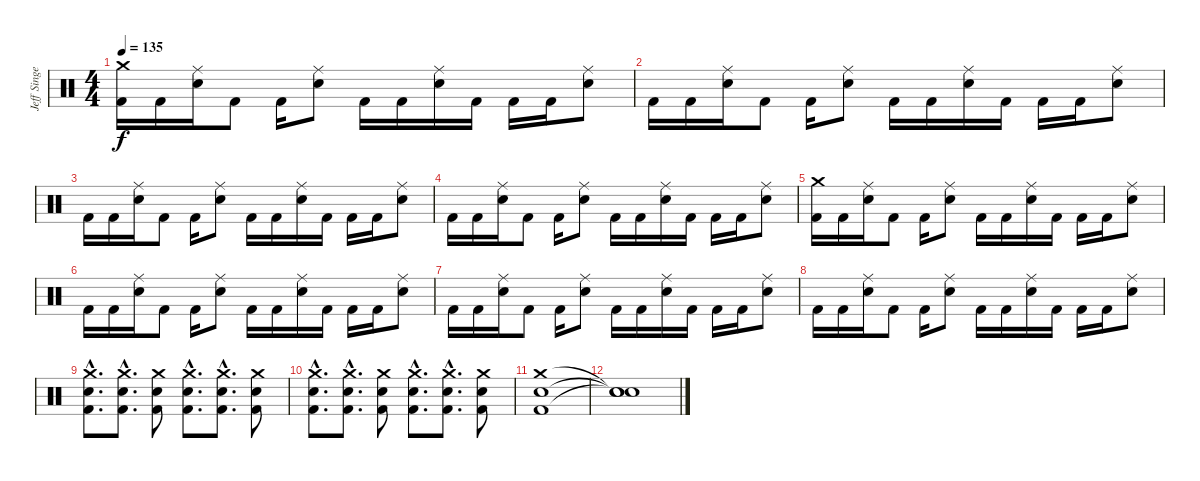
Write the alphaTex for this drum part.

\track ("Jeff Singer" "Jeff Singe") {instrument percussion}
\staff {score}
\articulation defaults
\ts (4 4)
\tempo 135
\clef neutral
\ks c
("Crash medium (hit)" "Kick (hit) 2").16{dy f} "Kick (hit) 2".16 ("Ride (middle)" "Snare (hit) 2").16 "Kick (hit) 2".8 "Kick (hit) 2".16 ("Ride (middle)" "Snare (hit) 2").8 "Kick (hit) 2".16 "Kick (hit) 2".16 ("Ride (middle)" "Snare (hit) 2").16 "Kick (hit) 2".16 "Kick (hit) 2".16 "Kick (hit) 2".16 ("Ride (middle)" "Snare (hit) 2").8 |
"Kick (hit) 2".16 "Kick (hit) 2".16 ("Ride (middle)" "Snare (hit) 2").16 "Kick (hit) 2".8 "Kick (hit) 2".16 ("Ride (middle)" "Snare (hit) 2").8 "Kick (hit) 2".16 "Kick (hit) 2".16 ("Ride (middle)" "Snare (hit) 2").16 "Kick (hit) 2".16 "Kick (hit) 2".16 "Kick (hit) 2".16 ("Ride (middle)" "Snare (hit) 2").8 |
"Kick (hit) 2".16 "Kick (hit) 2".16 ("Ride (middle)" "Snare (hit) 2").16 "Kick (hit) 2".8 "Kick (hit) 2".16 ("Ride (middle)" "Snare (hit) 2").8 "Kick (hit) 2".16 "Kick (hit) 2".16 ("Ride (middle)" "Snare (hit) 2").16 "Kick (hit) 2".16 "Kick (hit) 2".16 "Kick (hit) 2".16 ("Ride (middle)" "Snare (hit) 2").8 |
"Kick (hit) 2".16 "Kick (hit) 2".16 ("Ride (middle)" "Snare (hit) 2").16 "Kick (hit) 2".8 "Kick (hit) 2".16 ("Ride (middle)" "Snare (hit) 2").8 "Kick (hit) 2".16 "Kick (hit) 2".16 ("Ride (middle)" "Snare (hit) 2").16 "Kick (hit) 2".16 "Kick (hit) 2".16 "Kick (hit) 2".16 ("Ride (middle)" "Snare (hit) 2").8 |
("Crash medium (hit)" "Kick (hit) 2").16 "Kick (hit) 2".16 ("Ride (middle)" "Snare (hit) 2").16 "Kick (hit) 2".8 "Kick (hit) 2".16 ("Ride (middle)" "Snare (hit) 2").8 "Kick (hit) 2".16 "Kick (hit) 2".16 ("Ride (middle)" "Snare (hit) 2").16 "Kick (hit) 2".16 "Kick (hit) 2".16 "Kick (hit) 2".16 ("Ride (middle)" "Snare (hit) 2").8 |
"Kick (hit) 2".16 "Kick (hit) 2".16 ("Ride (middle)" "Snare (hit) 2").16 "Kick (hit) 2".8 "Kick (hit) 2".16 ("Ride (middle)" "Snare (hit) 2").8 "Kick (hit) 2".16 "Kick (hit) 2".16 ("Ride (middle)" "Snare (hit) 2").16 "Kick (hit) 2".16 "Kick (hit) 2".16 "Kick (hit) 2".16 ("Ride (middle)" "Snare (hit) 2").8 |
"Kick (hit) 2".16 "Kick (hit) 2".16 ("Ride (middle)" "Snare (hit) 2").16 "Kick (hit) 2".8 "Kick (hit) 2".16 ("Ride (middle)" "Snare (hit) 2").8 "Kick (hit) 2".16 "Kick (hit) 2".16 ("Ride (middle)" "Snare (hit) 2").16 "Kick (hit) 2".16 "Kick (hit) 2".16 "Kick (hit) 2".16 ("Ride (middle)" "Snare (hit) 2").8 |
"Kick (hit) 2".16 "Kick (hit) 2".16 ("Ride (middle)" "Snare (hit) 2").16 "Kick (hit) 2".8 "Kick (hit) 2".16 ("Ride (middle)" "Snare (hit) 2").8 "Kick (hit) 2".16 "Kick (hit) 2".16 ("Ride (middle)" "Snare (hit) 2").16 "Kick (hit) 2".16 "Kick (hit) 2".16 "Kick (hit) 2".16 ("Ride (middle)" "Snare (hit) 2").8 |
("Crash medium (hit)"{hac} "Snare (hit) 2"{hac} "Kick (hit) 2"{hac}).8{d} ("Crash medium (hit)"{hac} "Snare (hit) 2"{hac} "Kick (hit) 2"{hac}).8{d} ("Crash medium (hit)" "Snare (hit) 2" "Kick (hit) 2").8 ("Crash medium (hit)"{hac} "Snare (hit) 2"{hac} "Kick (hit) 2"{hac}).8{d} ("Crash medium (hit)"{hac} "Snare (hit) 2"{hac} "Kick (hit) 2"{hac}).8{d} ("Crash medium (hit)" "Snare (hit) 2" "Kick (hit) 2").8 |
("Crash medium (hit)"{hac} "Snare (hit) 2"{hac} "Kick (hit) 2"{hac}).8{d} ("Crash medium (hit)"{hac} "Snare (hit) 2"{hac} "Kick (hit) 2"{hac}).8{d} ("Crash medium (hit)" "Snare (hit) 2" "Kick (hit) 2").8 ("Crash medium (hit)"{hac} "Snare (hit) 2"{hac} "Kick (hit) 2"{hac}).8{d} ("Crash medium (hit)"{hac} "Snare (hit) 2"{hac} "Kick (hit) 2"{hac}).8{d} ("Crash medium (hit)" "Snare (hit) 2" "Kick (hit) 2").8 |
("Crash medium (hit)" "Snare (hit) 2" "Kick (hit) 2").1 |
("Snare (hit)"{t} "Snare (hit)"{t} "Snare (hit)"{t}).1
